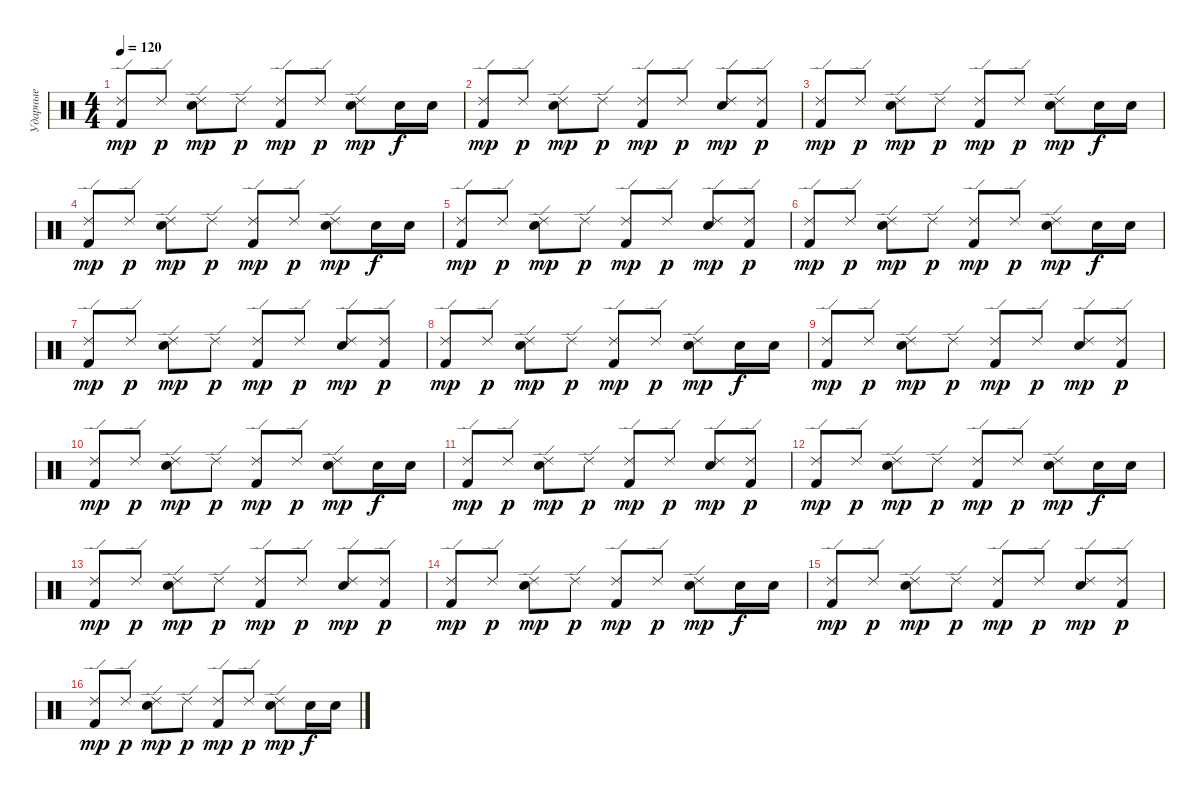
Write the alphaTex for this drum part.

\track ("Ударные" "Ударные") {instrument percussion}
\staff {score}
\articulation defaults
\ts (4 4)
\tempo 120
\clef neutral
\ks c
("Ride (edge) 2" "Kick (hit) 2").8{dy mp} "Ride (edge) 2".8{dy p} ("Ride (edge) 2" "Electric Snare (hit)").8{dy mp} "Ride (edge) 2".8{dy p} ("Ride (edge) 2" "Kick (hit) 2").8{dy mp} "Ride (edge) 2".8{dy p} ("Ride (edge) 2" "Electric Snare (hit)").8{dy mp} "Electric Snare (hit)".16{dy f} "Electric Snare (hit)".16 |
("Ride (edge) 2" "Kick (hit) 2").8{dy mp} "Ride (edge) 2".8{dy p} ("Ride (edge) 2" "Electric Snare (hit)").8{dy mp} "Ride (edge) 2".8{dy p} ("Ride (edge) 2" "Kick (hit) 2").8{dy mp} "Ride (edge) 2".8{dy p} ("Ride (edge) 2" "Electric Snare (hit)").8{dy mp} ("Ride (edge) 2" "Kick (hit) 2").8{dy p} |
("Ride (edge) 2" "Kick (hit) 2").8{dy mp} "Ride (edge) 2".8{dy p} ("Ride (edge) 2" "Electric Snare (hit)").8{dy mp} "Ride (edge) 2".8{dy p} ("Ride (edge) 2" "Kick (hit) 2").8{dy mp} "Ride (edge) 2".8{dy p} ("Ride (edge) 2" "Electric Snare (hit)").8{dy mp} "Electric Snare (hit)".16{dy f} "Electric Snare (hit)".16 |
("Ride (edge) 2" "Kick (hit) 2").8{dy mp} "Ride (edge) 2".8{dy p} ("Ride (edge) 2" "Electric Snare (hit)").8{dy mp} "Ride (edge) 2".8{dy p} ("Ride (edge) 2" "Kick (hit) 2").8{dy mp} "Ride (edge) 2".8{dy p} ("Ride (edge) 2" "Electric Snare (hit)").8{dy mp} "Electric Snare (hit)".16{dy f} "Electric Snare (hit)".16 |
("Ride (edge) 2" "Kick (hit) 2").8{dy mp} "Ride (edge) 2".8{dy p} ("Ride (edge) 2" "Electric Snare (hit)").8{dy mp} "Ride (edge) 2".8{dy p} ("Ride (edge) 2" "Kick (hit) 2").8{dy mp} "Ride (edge) 2".8{dy p} ("Ride (edge) 2" "Electric Snare (hit)").8{dy mp} ("Ride (edge) 2" "Kick (hit) 2").8{dy p} |
("Ride (edge) 2" "Kick (hit) 2").8{dy mp} "Ride (edge) 2".8{dy p} ("Ride (edge) 2" "Electric Snare (hit)").8{dy mp} "Ride (edge) 2".8{dy p} ("Ride (edge) 2" "Kick (hit) 2").8{dy mp} "Ride (edge) 2".8{dy p} ("Ride (edge) 2" "Electric Snare (hit)").8{dy mp} "Electric Snare (hit)".16{dy f} "Electric Snare (hit)".16 |
("Ride (edge) 2" "Kick (hit) 2").8{dy mp} "Ride (edge) 2".8{dy p} ("Ride (edge) 2" "Electric Snare (hit)").8{dy mp} "Ride (edge) 2".8{dy p} ("Ride (edge) 2" "Kick (hit) 2").8{dy mp} "Ride (edge) 2".8{dy p} ("Ride (edge) 2" "Electric Snare (hit)").8{dy mp} ("Ride (edge) 2" "Kick (hit) 2").8{dy p} |
("Ride (edge) 2" "Kick (hit) 2").8{dy mp} "Ride (edge) 2".8{dy p} ("Ride (edge) 2" "Electric Snare (hit)").8{dy mp} "Ride (edge) 2".8{dy p} ("Ride (edge) 2" "Kick (hit) 2").8{dy mp} "Ride (edge) 2".8{dy p} ("Ride (edge) 2" "Electric Snare (hit)").8{dy mp} "Electric Snare (hit)".16{dy f} "Electric Snare (hit)".16 |
("Ride (edge) 2" "Kick (hit) 2").8{dy mp} "Ride (edge) 2".8{dy p} ("Ride (edge) 2" "Electric Snare (hit)").8{dy mp} "Ride (edge) 2".8{dy p} ("Ride (edge) 2" "Kick (hit) 2").8{dy mp} "Ride (edge) 2".8{dy p} ("Ride (edge) 2" "Electric Snare (hit)").8{dy mp} ("Ride (edge) 2" "Kick (hit) 2").8{dy p} |
("Ride (edge) 2" "Kick (hit) 2").8{dy mp} "Ride (edge) 2".8{dy p} ("Ride (edge) 2" "Electric Snare (hit)").8{dy mp} "Ride (edge) 2".8{dy p} ("Ride (edge) 2" "Kick (hit) 2").8{dy mp} "Ride (edge) 2".8{dy p} ("Ride (edge) 2" "Electric Snare (hit)").8{dy mp} "Electric Snare (hit)".16{dy f} "Electric Snare (hit)".16 |
("Ride (edge) 2" "Kick (hit) 2").8{dy mp} "Ride (edge) 2".8{dy p} ("Ride (edge) 2" "Electric Snare (hit)").8{dy mp} "Ride (edge) 2".8{dy p} ("Ride (edge) 2" "Kick (hit) 2").8{dy mp} "Ride (edge) 2".8{dy p} ("Ride (edge) 2" "Electric Snare (hit)").8{dy mp} ("Ride (edge) 2" "Kick (hit) 2").8{dy p} |
("Ride (edge) 2" "Kick (hit) 2").8{dy mp} "Ride (edge) 2".8{dy p} ("Ride (edge) 2" "Electric Snare (hit)").8{dy mp} "Ride (edge) 2".8{dy p} ("Ride (edge) 2" "Kick (hit) 2").8{dy mp} "Ride (edge) 2".8{dy p} ("Ride (edge) 2" "Electric Snare (hit)").8{dy mp} "Electric Snare (hit)".16{dy f} "Electric Snare (hit)".16 |
("Ride (edge) 2" "Kick (hit) 2").8{dy mp} "Ride (edge) 2".8{dy p} ("Ride (edge) 2" "Electric Snare (hit)").8{dy mp} "Ride (edge) 2".8{dy p} ("Ride (edge) 2" "Kick (hit) 2").8{dy mp} "Ride (edge) 2".8{dy p} ("Ride (edge) 2" "Electric Snare (hit)").8{dy mp} ("Ride (edge) 2" "Kick (hit) 2").8{dy p} |
("Ride (edge) 2" "Kick (hit) 2").8{dy mp} "Ride (edge) 2".8{dy p} ("Ride (edge) 2" "Electric Snare (hit)").8{dy mp} "Ride (edge) 2".8{dy p} ("Ride (edge) 2" "Kick (hit) 2").8{dy mp} "Ride (edge) 2".8{dy p} ("Ride (edge) 2" "Electric Snare (hit)").8{dy mp} "Electric Snare (hit)".16{dy f} "Electric Snare (hit)".16 |
("Ride (edge) 2" "Kick (hit) 2").8{dy mp} "Ride (edge) 2".8{dy p} ("Ride (edge) 2" "Electric Snare (hit)").8{dy mp} "Ride (edge) 2".8{dy p} ("Ride (edge) 2" "Kick (hit) 2").8{dy mp} "Ride (edge) 2".8{dy p} ("Ride (edge) 2" "Electric Snare (hit)").8{dy mp} ("Ride (edge) 2" "Kick (hit) 2").8{dy p} |
("Ride (edge) 2" "Kick (hit) 2").8{dy mp} "Ride (edge) 2".8{dy p} ("Ride (edge) 2" "Electric Snare (hit)").8{dy mp} "Ride (edge) 2".8{dy p} ("Ride (edge) 2" "Kick (hit) 2").8{dy mp} "Ride (edge) 2".8{dy p} ("Ride (edge) 2" "Electric Snare (hit)").8{dy mp} "Electric Snare (hit)".16{dy f} "Electric Snare (hit)".16
